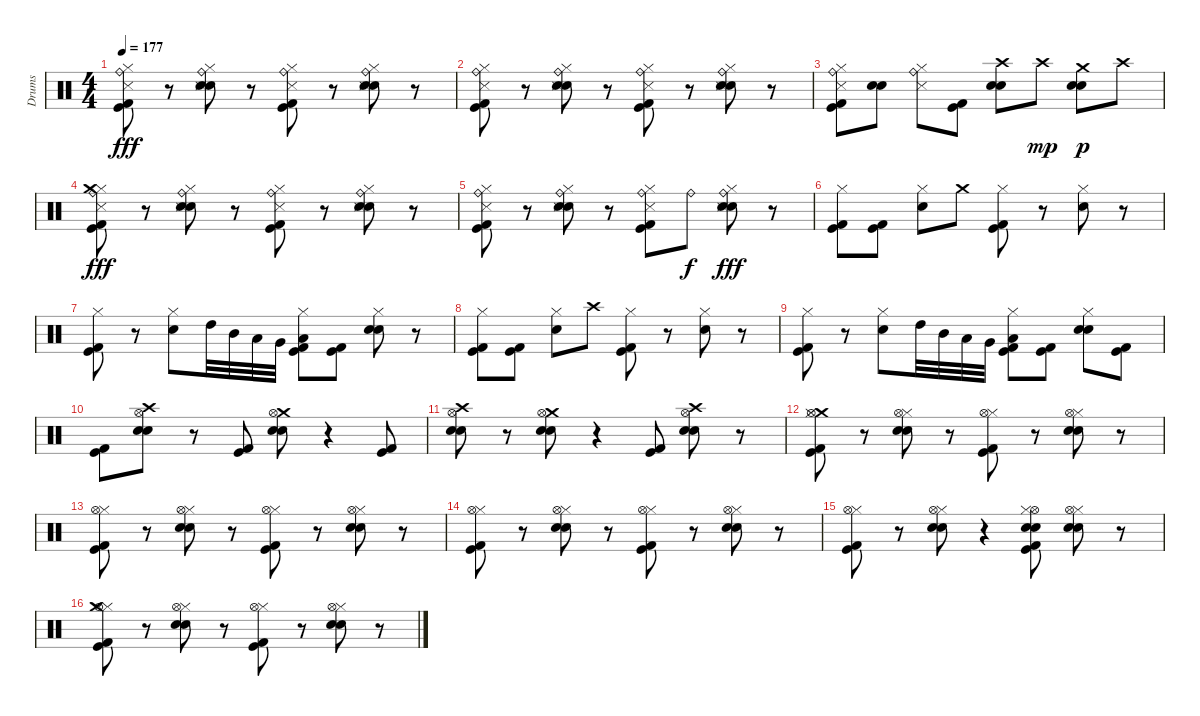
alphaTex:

\track ("Drums" "Drums") {instrument percussion}
\staff {score}
\articulation defaults
\ts (4 4)
\tempo 177
\clef neutral
\ks c
("Hi-Hat (closed)" "Kick (hit) 2" "Kick (hit)" "Snare (side stick) 3" "Ride (bell)").8{dy fff} r.8 ("Hi-Hat (closed)" "Electric Snare (hit)" "Snare (hit) 2" "Snare (side stick) 3" "Ride (bell)").8 r.8 ("Hi-Hat (closed)" "Kick (hit) 2" "Kick (hit)" "Snare (side stick) 3" "Ride (bell)").8 r.8 ("Hi-Hat (closed)" "Electric Snare (hit)" "Snare (hit) 2" "Snare (side stick) 3" "Ride (bell)").8 r.8 |
("Hi-Hat (closed)" "Kick (hit) 2" "Kick (hit)" "Ride (bell)" "Snare (side stick) 3").8 r.8 ("Hi-Hat (closed)" "Electric Snare (hit)" "Snare (hit) 2" "Ride (bell)" "Snare (side stick) 3").8 r.8 ("Hi-Hat (closed)" "Kick (hit) 2" "Kick (hit)" "Ride (bell)" "Snare (side stick) 3").8 r.8 ("Hi-Hat (closed)" "Electric Snare (hit)" "Snare (hit) 2" "Ride (bell)" "Snare (side stick) 3").8 r.8 |
("Kick (hit) 2" "Kick (hit)" "Ride (bell)" "Hi-Hat (closed)" "Snare (side stick) 3").8 ("Electric Snare (hit)" "Snare (hit) 2").8 ("Ride (bell)" "Hi-Hat (closed)" "Snare (side stick) 3").8 ("Kick (hit) 2" "Kick (hit)").8 ("Electric Snare (hit)" "Snare (hit) 2" "Crash high (hit)").8 "Crash high (hit)".8{dy mp} ("Electric Snare (hit)" "Snare (hit) 2" "Crash medium (hit)").8{dy p} "Crash high (hit)".8 |
("Hi-Hat (closed)" "Kick (hit) 2" "Kick (hit)" "Snare (side stick) 3" "Ride (bell)" "Crash medium (hit)").8{dy fff} r.8 ("Hi-Hat (closed)" "Electric Snare (hit)" "Snare (hit) 2" "Snare (side stick) 3" "Ride (bell)").8 r.8 ("Hi-Hat (closed)" "Kick (hit) 2" "Kick (hit)" "Snare (side stick) 3" "Ride (bell)").8 r.8 ("Hi-Hat (closed)" "Electric Snare (hit)" "Snare (hit) 2" "Snare (side stick) 3" "Ride (bell)").8 r.8 |
("Hi-Hat (closed)" "Kick (hit) 2" "Kick (hit)" "Snare (side stick) 3" "Ride (bell)").8 r.8 ("Hi-Hat (closed)" "Electric Snare (hit)" "Snare (hit) 2" "Snare (side stick) 3" "Ride (bell)").8 r.8 ("Hi-Hat (closed)" "Kick (hit) 2" "Kick (hit)" "Snare (side stick) 3" "Ride (bell)").8 "Ride (bell)".8{dy f} ("Hi-Hat (closed)" "Electric Snare (hit)" "Snare (hit) 2" "Snare (side stick) 3" "Ride (bell)").8{dy fff} r.8 |
("Hi-Hat (closed)" "Kick (hit) 2" "Kick (hit)").8 ("Kick (hit) 2" "Kick (hit)").8 ("Hi-Hat (closed)" "Electric Snare (hit)").8 "Crash medium (hit)".8 ("Hi-Hat (closed)" "Kick (hit) 2" "Kick (hit)").8 r.8 ("Hi-Hat (closed)" "Electric Snare (hit)").8 r.8 |
("Hi-Hat (closed)" "Kick (hit) 2" "Kick (hit)").8 r.8 ("Hi-Hat (closed)" "Electric Snare (hit)").8 "High Tom (hit)".32 "Mid Tom (hit)".32 "Low Tom (hit)".32 "Very Low Tom (hit)".32 ("Hi-Hat (closed)" "Kick (hit) 2" "Kick (hit)" "Low Floor Tom (hit)").8 ("Kick (hit) 2" "Kick (hit)").8 ("Hi-Hat (closed)" "Electric Snare (hit)" "Snare (hit) 2").8 r.8 |
("Hi-Hat (closed)" "Kick (hit) 2" "Kick (hit)").8 ("Kick (hit) 2" "Kick (hit)").8 ("Hi-Hat (closed)" "Electric Snare (hit)").8 "Crash high (hit)".8 ("Hi-Hat (closed)" "Kick (hit) 2" "Kick (hit)").8 r.8 ("Hi-Hat (closed)" "Electric Snare (hit)").8 r.8 |
("Hi-Hat (closed)" "Kick (hit) 2" "Kick (hit)").8 r.8 ("Hi-Hat (closed)" "Electric Snare (hit)").8 "High Tom (hit)".32 "Mid Tom (hit)".32 "Low Tom (hit)".32 "Very Low Tom (hit)".32 ("Hi-Hat (closed)" "Kick (hit) 2" "Kick (hit)" "Low Floor Tom (hit)").8 ("Kick (hit) 2" "Kick (hit)").8 ("Hi-Hat (closed)" "Electric Snare (hit)" "Snare (hit) 2").8 ("Kick (hit) 2" "Kick (hit)").8 |
("Kick (hit) 2" "Kick (hit)").8 ("Crash high (hit)" "Electric Snare (hit)" "Snare (hit) 2" "Hi-Hat (open)").8 r.8 ("Kick (hit) 2" "Kick (hit)").8 ("Crash medium (hit)" "Hi-Hat (open)" "Electric Snare (hit)" "Snare (hit) 2").8 r.4 ("Kick (hit) 2" "Kick (hit)").8 |
("Crash high (hit)" "Hi-Hat (open)" "Electric Snare (hit)" "Snare (hit) 2").8 r.8 ("Crash medium (hit)" "Hi-Hat (open)" "Electric Snare (hit)" "Snare (hit) 2").8 r.4 ("Kick (hit) 2" "Kick (hit)").8 ("Crash high (hit)" "Hi-Hat (open)" "Electric Snare (hit)" "Snare (hit) 2").8 r.8 |
("Crash medium (hit)" "Kick (hit) 2" "Kick (hit)" "Hi-Hat (closed)" "Hi-Hat (open)").8 r.8 ("Electric Snare (hit)" "Snare (hit) 2" "Hi-Hat (closed)" "Hi-Hat (open)").8 r.8 ("Kick (hit) 2" "Kick (hit)" "Hi-Hat (closed)" "Hi-Hat (open)").8 r.8 ("Electric Snare (hit)" "Snare (hit) 2" "Hi-Hat (closed)" "Hi-Hat (open)").8 r.8 |
("Kick (hit) 2" "Kick (hit)" "Hi-Hat (closed)" "Hi-Hat (open)").8 r.8 ("Electric Snare (hit)" "Snare (hit) 2" "Hi-Hat (closed)" "Hi-Hat (open)").8 r.8 ("Kick (hit) 2" "Kick (hit)" "Hi-Hat (closed)" "Hi-Hat (open)").8 r.8 ("Electric Snare (hit)" "Snare (hit) 2" "Hi-Hat (closed)" "Hi-Hat (open)").8 r.8 |
("Kick (hit) 2" "Kick (hit)" "Hi-Hat (closed)" "Hi-Hat (open)").8 r.8 ("Electric Snare (hit)" "Snare (hit) 2" "Hi-Hat (closed)" "Hi-Hat (open)").8 r.8 ("Kick (hit) 2" "Kick (hit)" "Hi-Hat (closed)" "Hi-Hat (open)").8 r.8 ("Electric Snare (hit)" "Snare (hit) 2" "Hi-Hat (closed)" "Hi-Hat (open)").8 r.8 |
("Kick (hit) 2" "Kick (hit)" "Hi-Hat (closed)" "Hi-Hat (open)").8 r.8 ("Hi-Hat (closed)" "Electric Snare (hit)" "Snare (hit) 2" "Hi-Hat (open)").8 r.4 ("Electric Snare (hit)" "Hi-Hat (open)" "Hi-Hat (closed)" "Kick (hit) 2" "Kick (hit)" "Snare (hit) 2").8 ("Hi-Hat (closed)" "Electric Snare (hit)" "Snare (hit) 2" "Hi-Hat (open)").8 r.8 |
("Kick (hit) 2" "Kick (hit)" "Hi-Hat (closed)" "Hi-Hat (open)" "Crash medium (hit)").8 r.8 ("Electric Snare (hit)" "Snare (hit) 2" "Hi-Hat (closed)" "Hi-Hat (open)").8 r.8 ("Kick (hit) 2" "Kick (hit)" "Hi-Hat (closed)" "Hi-Hat (open)").8 r.8 ("Electric Snare (hit)" "Snare (hit) 2" "Hi-Hat (closed)" "Hi-Hat (open)").8 r.8
